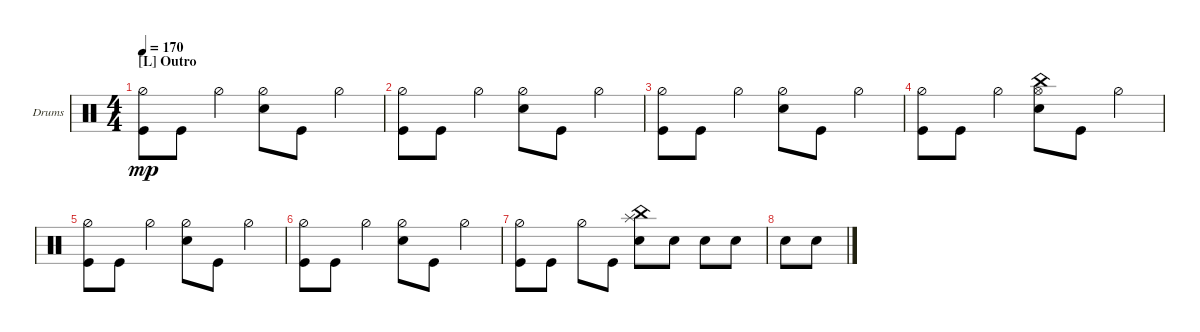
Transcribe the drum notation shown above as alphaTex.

\defaultSystemsLayout 4
\bracketExtendMode groupsimilarinstruments
\firstSystemTrackNameOrientation horizontal
\otherSystemsTrackNameOrientation horizontal
\track ("Ray" "Drums") {instrument percussion}
\staff {score}
\articulation defaults
\ts (4 4)
\section ("L" "Outro")
\tempo 170
\clef neutral
\ks c
("Hi-Hat (half)" "Kick (hit)").8{dy mp} "Kick (hit)".8 "Hi-Hat (half)".4 ("Hi-Hat (half)" "Snare (hit) 2").8 "Kick (hit)".8 "Hi-Hat (half)".4 |
("Hi-Hat (half)" "Kick (hit)").8 "Kick (hit)".8 "Hi-Hat (half)".4 ("Hi-Hat (half)" "Snare (hit) 2").8 "Kick (hit)".8 "Hi-Hat (half)".4 |
("Hi-Hat (half)" "Kick (hit)").8 "Kick (hit)".8 "Hi-Hat (half)".4 ("Hi-Hat (half)" "Snare (hit) 2").8 "Kick (hit)".8 "Hi-Hat (half)".4 |
("Hi-Hat (half)" "Kick (hit)").8 "Kick (hit)".8 "Hi-Hat (half)".4 ("Hi-Hat (open)" "China (hit)" "Snare (hit) 2").8 "Kick (hit)".8 "Hi-Hat (half)".4 |
("Hi-Hat (half)" "Kick (hit)").8 "Kick (hit)".8 "Hi-Hat (half)".4 ("Hi-Hat (half)" "Snare (hit) 2").8 "Kick (hit)".8 "Hi-Hat (half)".4 |
("Hi-Hat (half)" "Kick (hit)").8 "Kick (hit)".8 "Hi-Hat (half)".4 ("Hi-Hat (half)" "Snare (hit) 2").8 "Kick (hit)".8 "Hi-Hat (half)".4 |
("Hi-Hat (half)" "Kick (hit)").8 "Kick (hit)".8 "Hi-Hat (half)".8 "Kick (hit)".8 ("Snare (hit) 2" "China (hit)" "Splash (hit)").8 "Snare (hit) 2".8 "Snare (hit) 2".8 "Snare (hit) 2".8 |
"Snare (hit) 2".8 "Snare (hit) 2".8
